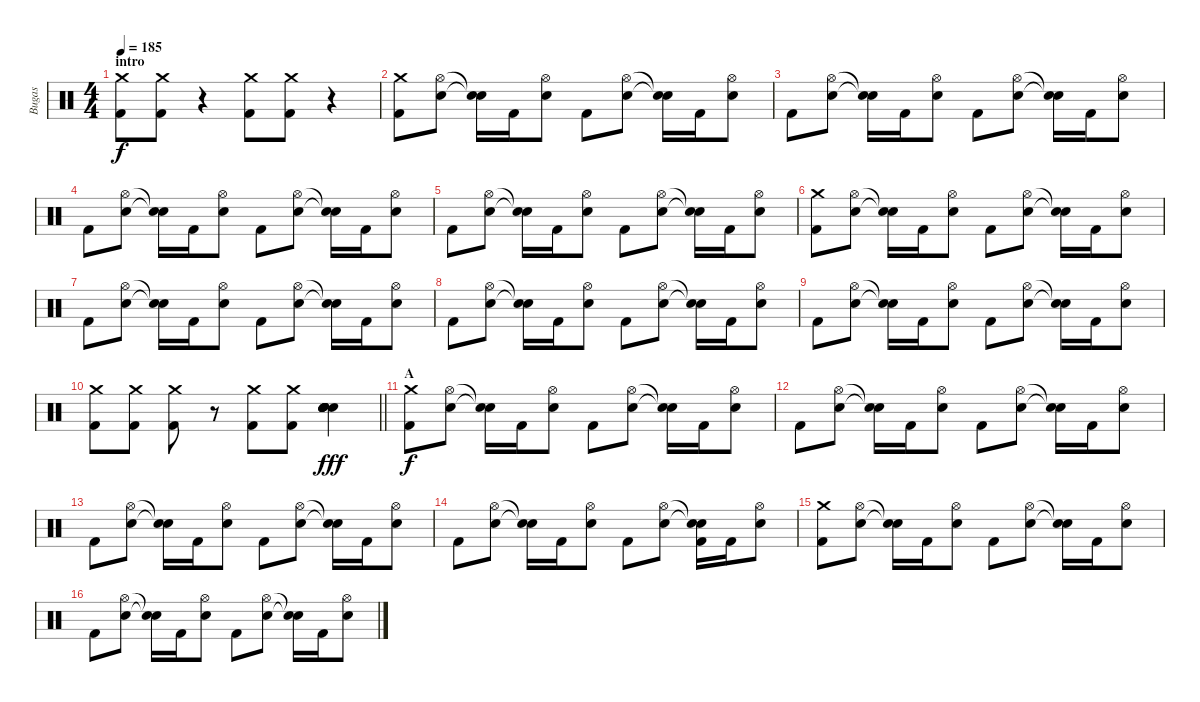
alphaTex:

\track ("Bugas" "Bugas") {instrument percussion}
\staff {score}
\articulation defaults
\ts (4 4)
\section ("" "intro")
\tempo 185
\clef neutral
\ks c
("Crash medium (hit)" "Kick (hit) 2").8{dy f} ("Crash medium (hit)" "Kick (hit) 2").8 r.4 ("Crash medium (hit)" "Kick (hit) 2").8 ("Crash medium (hit)" "Kick (hit) 2").8 r.4 |
("Crash medium (hit)" "Kick (hit) 2").8 ("Hi-Hat (open)" "Electric Snare (hit)").8 ("Snare (hit)"{t} "Snare (hit)"{t}).16 "Kick (hit) 2".16 ("Hi-Hat (open)" "Electric Snare (hit)").8 "Kick (hit) 2".8 ("Hi-Hat (open)" "Electric Snare (hit)").8 ("Snare (hit)"{t} "Snare (hit)"{t}).16 "Kick (hit) 2".16 ("Hi-Hat (open)" "Electric Snare (hit)").8 |
"Kick (hit) 2".8 ("Hi-Hat (open)" "Electric Snare (hit)").8 ("Snare (hit)"{t} "Snare (hit)"{t}).16 "Kick (hit) 2".16 ("Hi-Hat (open)" "Electric Snare (hit)").8 "Kick (hit) 2".8 ("Hi-Hat (open)" "Electric Snare (hit)").8 ("Snare (hit)"{t} "Snare (hit)"{t}).16 "Kick (hit) 2".16 ("Hi-Hat (open)" "Electric Snare (hit)").8 |
"Kick (hit) 2".8 ("Hi-Hat (open)" "Electric Snare (hit)").8 ("Snare (hit)"{t} "Snare (hit)"{t}).16 "Kick (hit) 2".16 ("Hi-Hat (open)" "Electric Snare (hit)").8 "Kick (hit) 2".8 ("Hi-Hat (open)" "Electric Snare (hit)").8 ("Snare (hit)"{t} "Snare (hit)"{t}).16 "Kick (hit) 2".16 ("Hi-Hat (open)" "Electric Snare (hit)").8 |
"Kick (hit) 2".8 ("Hi-Hat (open)" "Electric Snare (hit)").8 ("Snare (hit)"{t} "Snare (hit)"{t}).16 "Kick (hit) 2".16 ("Hi-Hat (open)" "Electric Snare (hit)").8 "Kick (hit) 2".8 ("Hi-Hat (open)" "Electric Snare (hit)").8 ("Snare (hit)"{t} "Snare (hit)"{t}).16 "Kick (hit) 2".16 ("Hi-Hat (open)" "Electric Snare (hit)").8 |
("Crash medium (hit)" "Kick (hit) 2").8 ("Hi-Hat (open)" "Electric Snare (hit)").8 ("Snare (hit)"{t} "Snare (hit)"{t}).16 "Kick (hit) 2".16 ("Hi-Hat (open)" "Electric Snare (hit)").8 "Kick (hit) 2".8 ("Hi-Hat (open)" "Electric Snare (hit)").8 ("Snare (hit)"{t} "Snare (hit)"{t}).16 "Kick (hit) 2".16 ("Hi-Hat (open)" "Electric Snare (hit)").8 |
"Kick (hit) 2".8 ("Hi-Hat (open)" "Electric Snare (hit)").8 ("Snare (hit)"{t} "Snare (hit)"{t}).16 "Kick (hit) 2".16 ("Hi-Hat (open)" "Electric Snare (hit)").8 "Kick (hit) 2".8 ("Hi-Hat (open)" "Electric Snare (hit)").8 ("Snare (hit)"{t} "Snare (hit)"{t}).16 "Kick (hit) 2".16 ("Hi-Hat (open)" "Electric Snare (hit)").8 |
"Kick (hit) 2".8 ("Hi-Hat (open)" "Electric Snare (hit)").8 ("Snare (hit)"{t} "Snare (hit)"{t}).16 "Kick (hit) 2".16 ("Hi-Hat (open)" "Electric Snare (hit)").8 "Kick (hit) 2".8 ("Hi-Hat (open)" "Electric Snare (hit)").8 ("Snare (hit)"{t} "Snare (hit)"{t}).16 "Kick (hit) 2".16 ("Hi-Hat (open)" "Electric Snare (hit)").8 |
"Kick (hit) 2".8 ("Hi-Hat (open)" "Electric Snare (hit)").8 ("Snare (hit)"{t} "Snare (hit)"{t}).16 "Kick (hit) 2".16 ("Hi-Hat (open)" "Electric Snare (hit)").8 "Kick (hit) 2".8 ("Hi-Hat (open)" "Electric Snare (hit)").8 ("Snare (hit)"{t} "Snare (hit)"{t}).16 "Kick (hit) 2".16 ("Hi-Hat (open)" "Electric Snare (hit)").8 |
\barLineRight lightlight
("Crash medium (hit)" "Kick (hit) 2").8 ("Crash medium (hit)" "Kick (hit) 2").8 ("Crash medium (hit)" "Kick (hit) 2").8 r.8 ("Crash medium (hit)" "Kick (hit) 2").8 ("Crash medium (hit)" "Kick (hit) 2").8 ("Electric Snare (hit)" "Electric Snare (hit)" "Electric Snare (hit)" "Electric Snare (hit)" "Electric Snare (hit)" "Electric Snare (hit)").4{dy fff} |
\section ("" "A")
("Crash medium (hit)" "Kick (hit) 2").8{dy f} ("Hi-Hat (open)" "Electric Snare (hit)").8 ("Snare (hit)"{t} "Snare (hit)"{t}).16 "Kick (hit) 2".16 ("Hi-Hat (open)" "Electric Snare (hit)").8 "Kick (hit) 2".8 ("Hi-Hat (open)" "Electric Snare (hit)").8 ("Snare (hit)"{t} "Snare (hit)"{t}).16 "Kick (hit) 2".16 ("Hi-Hat (open)" "Electric Snare (hit)").8 |
"Kick (hit) 2".8 ("Hi-Hat (open)" "Electric Snare (hit)").8 ("Snare (hit)"{t} "Snare (hit)"{t}).16 "Kick (hit) 2".16 ("Hi-Hat (open)" "Electric Snare (hit)").8 "Kick (hit) 2".8 ("Hi-Hat (open)" "Electric Snare (hit)").8 ("Snare (hit)"{t} "Snare (hit)"{t}).16 "Kick (hit) 2".16 ("Hi-Hat (open)" "Electric Snare (hit)").8 |
"Kick (hit) 2".8 ("Hi-Hat (open)" "Electric Snare (hit)").8 ("Snare (hit)"{t} "Snare (hit)"{t}).16 "Kick (hit) 2".16 ("Hi-Hat (open)" "Electric Snare (hit)").8 "Kick (hit) 2".8 ("Hi-Hat (open)" "Electric Snare (hit)").8 ("Snare (hit)"{t} "Snare (hit)"{t}).16 "Kick (hit) 2".16 ("Hi-Hat (open)" "Electric Snare (hit)").8 |
"Kick (hit) 2".8 ("Hi-Hat (open)" "Electric Snare (hit)").8 ("Snare (hit)"{t} "Snare (hit)"{t}).16 "Kick (hit) 2".16 ("Hi-Hat (open)" "Electric Snare (hit)").8 "Kick (hit) 2".8 ("Hi-Hat (open)" "Electric Snare (hit)").8 ("Snare (hit)"{t} "Snare (hit)"{t} "Kick (hit) 2").16 "Kick (hit) 2".16 ("Hi-Hat (open)" "Electric Snare (hit)").8 |
("Crash medium (hit)" "Kick (hit) 2").8 ("Hi-Hat (open)" "Electric Snare (hit)").8 ("Snare (hit)"{t} "Snare (hit)"{t}).16 "Kick (hit) 2".16 ("Hi-Hat (open)" "Electric Snare (hit)").8 "Kick (hit) 2".8 ("Hi-Hat (open)" "Electric Snare (hit)").8 ("Snare (hit)"{t} "Snare (hit)"{t}).16 "Kick (hit) 2".16 ("Hi-Hat (open)" "Electric Snare (hit)").8 |
"Kick (hit) 2".8 ("Hi-Hat (open)" "Electric Snare (hit)").8 ("Snare (hit)"{t} "Snare (hit)"{t}).16 "Kick (hit) 2".16 ("Hi-Hat (open)" "Electric Snare (hit)").8 "Kick (hit) 2".8 ("Hi-Hat (open)" "Electric Snare (hit)").8 ("Snare (hit)"{t} "Snare (hit)"{t}).16 "Kick (hit) 2".16 ("Hi-Hat (open)" "Electric Snare (hit)").8
